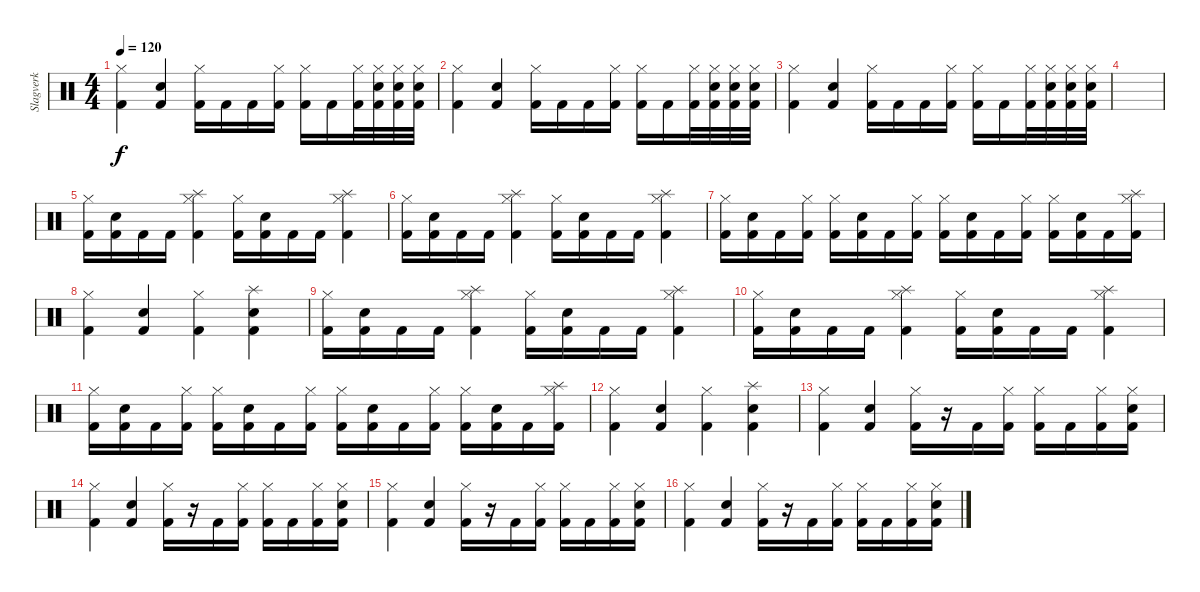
\track ("Slagverk" "Slagverk") {instrument percussion}
\staff {score}
\articulation defaults
\ts (4 4)
\tempo 120
\clef neutral
\ks c
("Kick (hit) 2" "Hi-Hat (closed)").4{dy f} ("Kick (hit) 2" "Electric Snare (hit)").4 ("Kick (hit) 2" "Hi-Hat (closed)").16 "Kick (hit) 2".16 "Kick (hit) 2".16 ("Kick (hit) 2" "Hi-Hat (closed)").16 ("Kick (hit) 2" "Hi-Hat (closed)").16 "Kick (hit) 2".16 ("Kick (hit) 2" "Hi-Hat (closed)").32 ("Kick (hit) 2" "Hi-Hat (closed)" "Electric Snare (hit)").32 ("Kick (hit) 2" "Hi-Hat (closed)" "Electric Snare (hit)").32 ("Kick (hit) 2" "Hi-Hat (closed)" "Electric Snare (hit)").32 |
("Kick (hit) 2" "Hi-Hat (closed)").4 ("Kick (hit) 2" "Electric Snare (hit)").4 ("Kick (hit) 2" "Hi-Hat (closed)").16 "Kick (hit) 2".16 "Kick (hit) 2".16 ("Kick (hit) 2" "Hi-Hat (closed)").16 ("Kick (hit) 2" "Hi-Hat (closed)").16 "Kick (hit) 2".16 ("Kick (hit) 2" "Hi-Hat (closed)").32 ("Kick (hit) 2" "Hi-Hat (closed)" "Electric Snare (hit)").32 ("Kick (hit) 2" "Hi-Hat (closed)" "Electric Snare (hit)").32 ("Kick (hit) 2" "Hi-Hat (closed)" "Electric Snare (hit)").32 |
("Kick (hit) 2" "Hi-Hat (closed)").4 ("Kick (hit) 2" "Electric Snare (hit)").4 ("Kick (hit) 2" "Hi-Hat (closed)").16 "Kick (hit) 2".16 "Kick (hit) 2".16 ("Kick (hit) 2" "Hi-Hat (closed)").16 ("Kick (hit) 2" "Hi-Hat (closed)").16 "Kick (hit) 2".16 ("Kick (hit) 2" "Hi-Hat (closed)").32 ("Kick (hit) 2" "Hi-Hat (closed)" "Electric Snare (hit)").32 ("Kick (hit) 2" "Hi-Hat (closed)" "Electric Snare (hit)").32 ("Kick (hit) 2" "Hi-Hat (closed)" "Electric Snare (hit)").32 |
|
("Kick (hit) 2" "Hi-Hat (closed)").16 ("Kick (hit) 2" "Electric Snare (hit)").16 "Kick (hit) 2".16 "Kick (hit) 2".16 ("Kick (hit) 2" "Hi-Hat (closed)" "Splash (hit)").4 ("Kick (hit) 2" "Hi-Hat (closed)").16 ("Kick (hit) 2" "Electric Snare (hit)").16 "Kick (hit) 2".16 "Kick (hit) 2".16 ("Kick (hit) 2" "Hi-Hat (closed)" "Splash (hit)").4 |
("Kick (hit) 2" "Hi-Hat (closed)").16 ("Kick (hit) 2" "Electric Snare (hit)").16 "Kick (hit) 2".16 "Kick (hit) 2".16 ("Kick (hit) 2" "Hi-Hat (closed)" "Splash (hit)").4 ("Kick (hit) 2" "Hi-Hat (closed)").16 ("Kick (hit) 2" "Electric Snare (hit)").16 "Kick (hit) 2".16 "Kick (hit) 2".16 ("Kick (hit) 2" "Hi-Hat (closed)" "Splash (hit)").4 |
("Kick (hit) 2" "Hi-Hat (closed)").16 ("Kick (hit) 2" "Electric Snare (hit)").16 "Kick (hit) 2".16 ("Kick (hit) 2" "Hi-Hat (closed)").16 ("Kick (hit) 2" "Hi-Hat (closed)").16 ("Kick (hit) 2" "Electric Snare (hit)").16 "Kick (hit) 2".16 ("Kick (hit) 2" "Hi-Hat (closed)").16 ("Kick (hit) 2" "Hi-Hat (closed)").16 ("Kick (hit) 2" "Electric Snare (hit)").16 "Kick (hit) 2".16 ("Kick (hit) 2" "Hi-Hat (closed)").16 ("Kick (hit) 2" "Hi-Hat (closed)").16 ("Kick (hit) 2" "Electric Snare (hit)").16 "Kick (hit) 2".16 ("Kick (hit) 2" "Hi-Hat (closed)" "Splash (hit)").16 |
("Kick (hit) 2" "Hi-Hat (closed)").4 ("Kick (hit) 2" "Electric Snare (hit)").4 ("Kick (hit) 2" "Hi-Hat (closed)").4 ("Kick (hit) 2" "Electric Snare (hit)" "Splash (hit)").4 |
("Kick (hit) 2" "Hi-Hat (closed)").16 ("Kick (hit) 2" "Electric Snare (hit)").16 "Kick (hit) 2".16 "Kick (hit) 2".16 ("Kick (hit) 2" "Hi-Hat (closed)" "Splash (hit)").4 ("Kick (hit) 2" "Hi-Hat (closed)").16 ("Kick (hit) 2" "Electric Snare (hit)").16 "Kick (hit) 2".16 "Kick (hit) 2".16 ("Kick (hit) 2" "Hi-Hat (closed)" "Splash (hit)").4 |
("Kick (hit) 2" "Hi-Hat (closed)").16 ("Kick (hit) 2" "Electric Snare (hit)").16 "Kick (hit) 2".16 "Kick (hit) 2".16 ("Kick (hit) 2" "Hi-Hat (closed)" "Splash (hit)").4 ("Kick (hit) 2" "Hi-Hat (closed)").16 ("Kick (hit) 2" "Electric Snare (hit)").16 "Kick (hit) 2".16 "Kick (hit) 2".16 ("Kick (hit) 2" "Hi-Hat (closed)" "Splash (hit)").4 |
("Kick (hit) 2" "Hi-Hat (closed)").16 ("Kick (hit) 2" "Electric Snare (hit)").16 "Kick (hit) 2".16 ("Kick (hit) 2" "Hi-Hat (closed)").16 ("Kick (hit) 2" "Hi-Hat (closed)").16 ("Kick (hit) 2" "Electric Snare (hit)").16 "Kick (hit) 2".16 ("Kick (hit) 2" "Hi-Hat (closed)").16 ("Kick (hit) 2" "Hi-Hat (closed)").16 ("Kick (hit) 2" "Electric Snare (hit)").16 "Kick (hit) 2".16 ("Kick (hit) 2" "Hi-Hat (closed)").16 ("Kick (hit) 2" "Hi-Hat (closed)").16 ("Kick (hit) 2" "Electric Snare (hit)").16 "Kick (hit) 2".16 ("Kick (hit) 2" "Hi-Hat (closed)" "Splash (hit)").16 |
("Kick (hit) 2" "Hi-Hat (closed)").4 ("Kick (hit) 2" "Electric Snare (hit)").4 ("Kick (hit) 2" "Hi-Hat (closed)").4 ("Kick (hit) 2" "Electric Snare (hit)" "Splash (hit)").4 |
("Kick (hit) 2" "Hi-Hat (closed)").4 ("Kick (hit) 2" "Electric Snare (hit)").4 ("Kick (hit) 2" "Hi-Hat (closed)").16 r.16 "Kick (hit) 2".16 ("Kick (hit) 2" "Hi-Hat (closed)").16 ("Kick (hit) 2" "Hi-Hat (closed)").16 "Kick (hit) 2".16 ("Kick (hit) 2" "Hi-Hat (closed)").16 ("Kick (hit) 2" "Hi-Hat (closed)" "Electric Snare (hit)").16 |
("Kick (hit) 2" "Hi-Hat (closed)").4 ("Kick (hit) 2" "Electric Snare (hit)").4 ("Kick (hit) 2" "Hi-Hat (closed)").16 r.16 "Kick (hit) 2".16 ("Kick (hit) 2" "Hi-Hat (closed)").16 ("Kick (hit) 2" "Hi-Hat (closed)").16 "Kick (hit) 2".16 ("Kick (hit) 2" "Hi-Hat (closed)").16 ("Kick (hit) 2" "Hi-Hat (closed)" "Electric Snare (hit)").16 |
("Kick (hit) 2" "Hi-Hat (closed)").4 ("Kick (hit) 2" "Electric Snare (hit)").4 ("Kick (hit) 2" "Hi-Hat (closed)").16 r.16 "Kick (hit) 2".16 ("Kick (hit) 2" "Hi-Hat (closed)").16 ("Kick (hit) 2" "Hi-Hat (closed)").16 "Kick (hit) 2".16 ("Kick (hit) 2" "Hi-Hat (closed)").16 ("Kick (hit) 2" "Hi-Hat (closed)" "Electric Snare (hit)").16 |
("Kick (hit) 2" "Hi-Hat (closed)").4 ("Kick (hit) 2" "Electric Snare (hit)").4 ("Kick (hit) 2" "Hi-Hat (closed)").16 r.16 "Kick (hit) 2".16 ("Kick (hit) 2" "Hi-Hat (closed)").16 ("Kick (hit) 2" "Hi-Hat (closed)").16 "Kick (hit) 2".16 ("Kick (hit) 2" "Hi-Hat (closed)").16 ("Kick (hit) 2" "Hi-Hat (closed)" "Electric Snare (hit)").16
